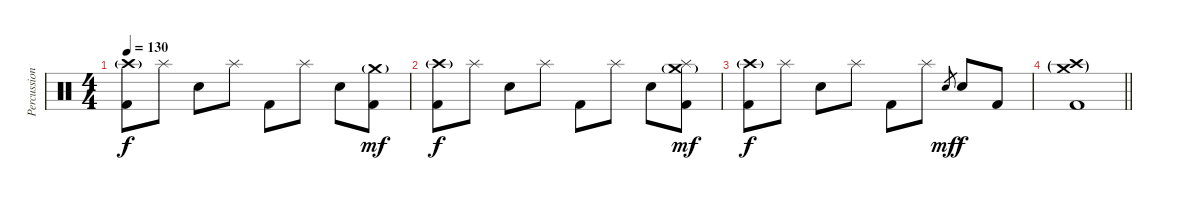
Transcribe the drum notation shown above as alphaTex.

\track ("Percussion" "Percussion") {instrument percussion}
\staff {score}
\articulation defaults
\ts (4 4)
\tempo 130
\clef neutral
\ks c
("Crash high (hit)"{g} "Kick (hit) 2").8{dy f} "Splash (hit)".8 "Electric Snare (hit)".8 "Splash (hit)".8 "Kick (hit) 2".8 "Splash (hit)".8 "Electric Snare (hit)".8 ("Crash medium (hit)"{g} "Kick (hit) 2").8{dy mf} |
("Crash high (hit)"{g} "Kick (hit) 2").8{dy f} "Splash (hit)".8 "Electric Snare (hit)".8 "Splash (hit)".8 "Kick (hit) 2".8 "Splash (hit)".8 "Electric Snare (hit)".8 ("Crash medium (hit)"{g} "Splash (hit)" "Kick (hit) 2").8{dy mf} |
("Crash high (hit)"{g} "Kick (hit) 2").8{dy f} "Splash (hit)".8 "Electric Snare (hit)".8 "Splash (hit)".8 "Kick (hit) 2".8 "Splash (hit)".8 "Electric Snare (hit)".8{gr dy mf} "Electric Snare (hit)".8{dy f} "Kick (hit) 2".8 |
\barLineRight lightlight
("Crash medium (hit)"{g} "Crash high (hit)"{g} "Kick (hit) 2").1
